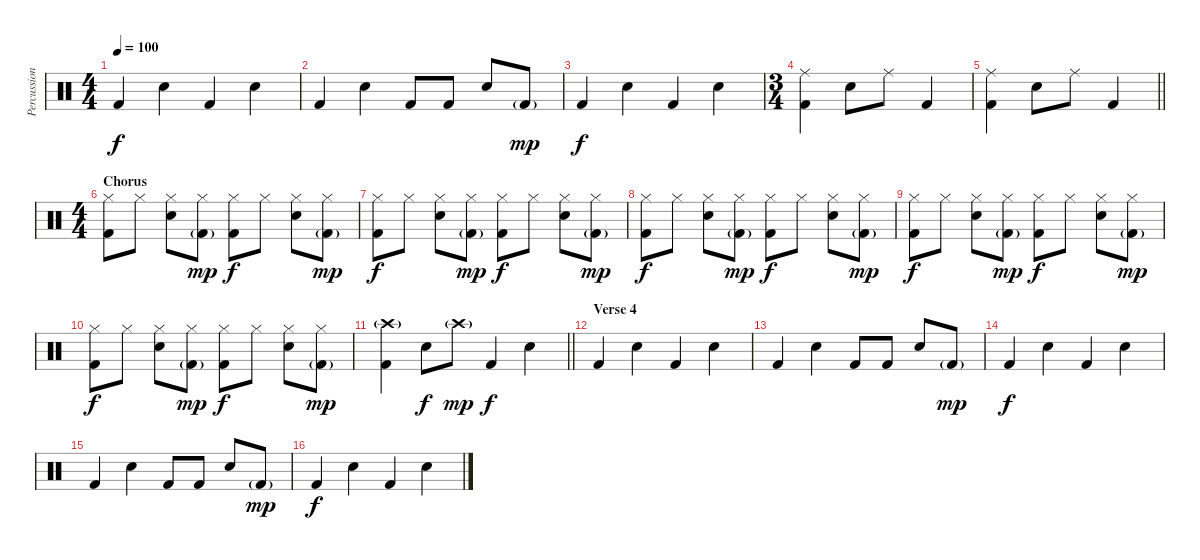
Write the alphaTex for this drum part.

\track ("Percussion" "Percussion") {instrument percussion}
\staff {score}
\articulation defaults
\ts (4 4)
\tempo 100
\clef neutral
\ks c "Kick (hit) 2".4{dy f} "Snare (hit) 2".4 "Kick (hit) 2".4 "Snare (hit) 2".4
|
"Kick (hit) 2".4 "Snare (hit) 2".4 "Kick (hit) 2".8 "Kick (hit) 2".8 "Snare (hit) 2".8 "Kick (hit) 2"{g}.8{dy mp} |
"Kick (hit) 2".4{dy f} "Snare (hit) 2".4 "Kick (hit) 2".4 "Snare (hit) 2".4 |
\ts (3 4)
("Ride (middle)" "Kick (hit) 2").4 "Snare (hit) 2".8 "Ride (middle)".8 "Kick (hit) 2".4 |
\barLineRight lightlight
("Ride (middle)" "Kick (hit) 2").4 "Snare (hit) 2".8 "Ride (middle)".8 "Kick (hit) 2".4 |
\ts (4 4)
\section ("" "Chorus")
("Hi-Hat (closed)" "Kick (hit) 2").8 "Hi-Hat (closed)".8 ("Hi-Hat (closed)" "Snare (hit) 2").8 ("Hi-Hat (closed)" "Kick (hit) 2"{g}).8{dy mp} ("Hi-Hat (closed)" "Kick (hit) 2").8{dy f} "Hi-Hat (closed)".8 ("Hi-Hat (closed)" "Snare (hit) 2").8 ("Hi-Hat (closed)" "Kick (hit) 2"{g}).8{dy mp} |
("Hi-Hat (closed)" "Kick (hit) 2").8{dy f} "Hi-Hat (closed)".8 ("Hi-Hat (closed)" "Snare (hit) 2").8 ("Hi-Hat (closed)" "Kick (hit) 2"{g}).8{dy mp} ("Hi-Hat (closed)" "Kick (hit) 2").8{dy f} "Hi-Hat (closed)".8 ("Hi-Hat (closed)" "Snare (hit) 2").8 ("Hi-Hat (closed)" "Kick (hit) 2"{g}).8{dy mp} |
("Hi-Hat (closed)" "Kick (hit) 2").8{dy f} "Hi-Hat (closed)".8 ("Hi-Hat (closed)" "Snare (hit) 2").8 ("Hi-Hat (closed)" "Kick (hit) 2"{g}).8{dy mp} ("Hi-Hat (closed)" "Kick (hit) 2").8{dy f} "Hi-Hat (closed)".8 ("Hi-Hat (closed)" "Snare (hit) 2").8 ("Hi-Hat (closed)" "Kick (hit) 2"{g}).8{dy mp} |
("Hi-Hat (closed)" "Kick (hit) 2").8{dy f} "Hi-Hat (closed)".8 ("Hi-Hat (closed)" "Snare (hit) 2").8 ("Hi-Hat (closed)" "Kick (hit) 2"{g}).8{dy mp} ("Hi-Hat (closed)" "Kick (hit) 2").8{dy f} "Hi-Hat (closed)".8 ("Hi-Hat (closed)" "Snare (hit) 2").8 ("Hi-Hat (closed)" "Kick (hit) 2"{g}).8{dy mp} |
("Hi-Hat (closed)" "Kick (hit) 2").8{dy f} "Hi-Hat (closed)".8 ("Hi-Hat (closed)" "Snare (hit) 2").8 ("Hi-Hat (closed)" "Kick (hit) 2"{g}).8{dy mp} ("Hi-Hat (closed)" "Kick (hit) 2").8{dy f} "Hi-Hat (closed)".8 ("Hi-Hat (closed)" "Snare (hit) 2").8 ("Hi-Hat (closed)" "Kick (hit) 2"{g}).8{dy mp} |
\barLineRight lightlight
("Crash high (hit)"{g} "Kick (hit) 2").4 "Snare (hit) 2".8{dy f} "Crash high (hit)"{g}.8{dy mp} "Kick (hit) 2".4{dy f} "Snare (hit) 2".4 |
\section ("" "Verse 4")
"Kick (hit) 2".4 "Snare (hit) 2".4 "Kick (hit) 2".4 "Snare (hit) 2".4 |
"Kick (hit) 2".4 "Snare (hit) 2".4 "Kick (hit) 2".8 "Kick (hit) 2".8 "Snare (hit) 2".8 "Kick (hit) 2"{g}.8{dy mp} |
"Kick (hit) 2".4{dy f} "Snare (hit) 2".4 "Kick (hit) 2".4 "Snare (hit) 2".4 |
"Kick (hit) 2".4 "Snare (hit) 2".4 "Kick (hit) 2".8 "Kick (hit) 2".8 "Snare (hit) 2".8 "Kick (hit) 2"{g}.8{dy mp} |
"Kick (hit) 2".4{dy f} "Snare (hit) 2".4 "Kick (hit) 2".4 "Snare (hit) 2".4
